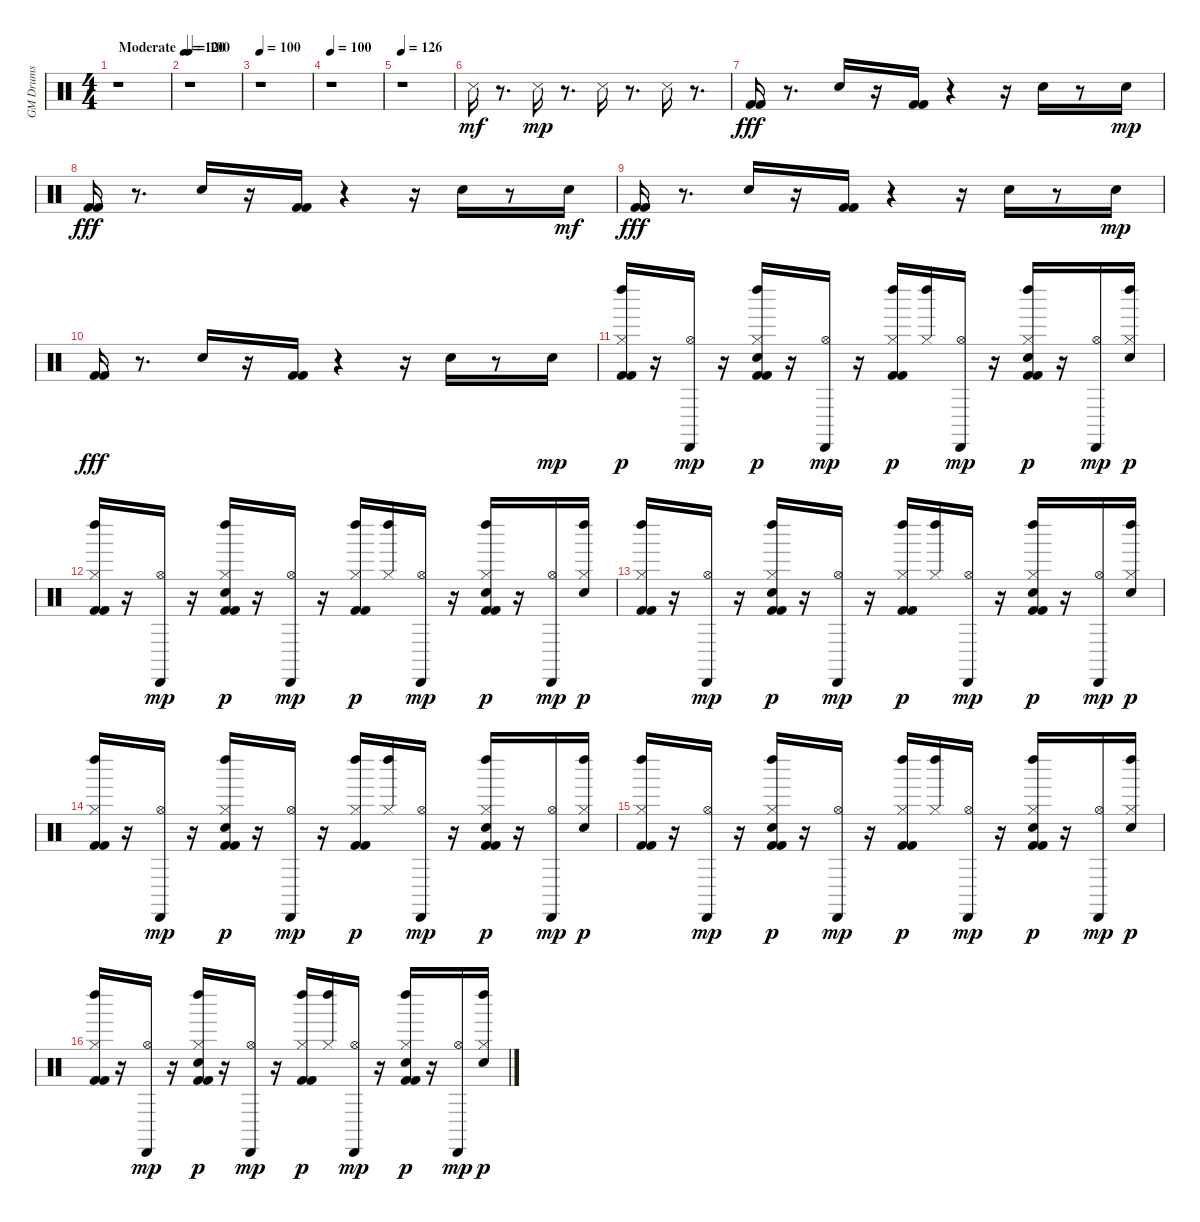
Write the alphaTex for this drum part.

\track ("GM Drums" "GM Drums") {instrument percussion}
\staff {score}
\articulation defaults
\ts (4 4)
\tempo (120 "Moderate")
\clef neutral
\ks c
r.1{dy mf} |
\tempo 100
r.1 |
\tempo 100
r.1 |
\tempo 100
r.1 |
\tempo 126
r.1 |
"Snare (side stick) 3".16 r.8{d} "Snare (side stick) 3".16{dy mp} r.8{d} "Snare (side stick) 3".16 r.8{d} "Snare (side stick) 3".16 r.8{d} |
("Kick (hit) 2" "Kick (hit) 2").16{dy fff} r.8{d} "Electric Snare (hit)".16 r.16 ("Kick (hit) 2" "Kick (hit) 2").16 r.4 r.16 "Electric Snare (hit)".16 r.8 "Electric Snare (hit)".16{dy mp} |
("Kick (hit) 2" "Kick (hit) 2").16{dy fff} r.8{d} "Electric Snare (hit)".16 r.16 ("Kick (hit) 2" "Kick (hit) 2").16 r.4 r.16 "Electric Snare (hit)".16 r.8 "Electric Snare (hit)".16{dy mf} |
("Kick (hit) 2" "Kick (hit) 2").16{dy fff} r.8{d} "Electric Snare (hit)".16 r.16 ("Kick (hit) 2" "Kick (hit) 2").16 r.4 r.16 "Electric Snare (hit)".16 r.8 "Electric Snare (hit)".16{dy mp} |
("Kick (hit) 2" "Kick (hit) 2").16{dy fff} r.8{d} "Electric Snare (hit)".16 r.16 ("Kick (hit) 2" "Kick (hit) 2").16 r.4 r.16 "Electric Snare (hit)".16 r.8 "Electric Snare (hit)".16{dy mp} |
("Kick (hit) 2" "Kick (hit) 2" "Hi-Hat (closed)" "Left Maraca (hit)").16{dy p} r.16 ("Hi-Hat (open)" "Cabasa (hit)").16{dy mp} r.16 ("Kick (hit) 2" "Kick (hit) 2" "Electric Snare (hit)" "Hi-Hat (closed)" "Left Maraca (hit)").16{dy p} r.16 ("Hi-Hat (open)" "Cabasa (hit)").16{dy mp} r.16 ("Kick (hit) 2" "Kick (hit) 2" "Hi-Hat (closed)" "Left Maraca (hit)").16{dy p} ("Hi-Hat (closed)" "Left Maraca (hit)").16 ("Hi-Hat (open)" "Cabasa (hit)").16{dy mp} r.16 ("Kick (hit) 2" "Kick (hit) 2" "Electric Snare (hit)" "Hi-Hat (closed)" "Left Maraca (hit)").16{dy p} r.16 ("Hi-Hat (open)" "Cabasa (hit)").16{dy mp} ("Electric Snare (hit)" "Hi-Hat (closed)" "Left Maraca (hit)").16{dy p} |
("Kick (hit) 2" "Kick (hit) 2" "Hi-Hat (closed)" "Left Maraca (hit)").16 r.16 ("Hi-Hat (open)" "Cabasa (hit)").16{dy mp} r.16 ("Kick (hit) 2" "Kick (hit) 2" "Electric Snare (hit)" "Hi-Hat (closed)" "Left Maraca (hit)").16{dy p} r.16 ("Hi-Hat (open)" "Cabasa (hit)").16{dy mp} r.16 ("Kick (hit) 2" "Kick (hit) 2" "Hi-Hat (closed)" "Left Maraca (hit)").16{dy p} ("Hi-Hat (closed)" "Left Maraca (hit)").16 ("Hi-Hat (open)" "Cabasa (hit)").16{dy mp} r.16 ("Kick (hit) 2" "Kick (hit) 2" "Electric Snare (hit)" "Hi-Hat (closed)" "Left Maraca (hit)").16{dy p} r.16 ("Hi-Hat (open)" "Cabasa (hit)").16{dy mp} ("Electric Snare (hit)" "Hi-Hat (closed)" "Left Maraca (hit)").16{dy p} |
("Kick (hit) 2" "Kick (hit) 2" "Hi-Hat (closed)" "Left Maraca (hit)").16 r.16 ("Hi-Hat (open)" "Cabasa (hit)").16{dy mp} r.16 ("Kick (hit) 2" "Kick (hit) 2" "Electric Snare (hit)" "Hi-Hat (closed)" "Left Maraca (hit)").16{dy p} r.16 ("Hi-Hat (open)" "Cabasa (hit)").16{dy mp} r.16 ("Kick (hit) 2" "Kick (hit) 2" "Hi-Hat (closed)" "Left Maraca (hit)").16{dy p} ("Hi-Hat (closed)" "Left Maraca (hit)").16 ("Hi-Hat (open)" "Cabasa (hit)").16{dy mp} r.16 ("Kick (hit) 2" "Kick (hit) 2" "Electric Snare (hit)" "Hi-Hat (closed)" "Left Maraca (hit)").16{dy p} r.16 ("Hi-Hat (open)" "Cabasa (hit)").16{dy mp} ("Electric Snare (hit)" "Hi-Hat (closed)" "Left Maraca (hit)").16{dy p} |
("Kick (hit) 2" "Kick (hit) 2" "Hi-Hat (closed)" "Left Maraca (hit)").16 r.16 ("Hi-Hat (open)" "Cabasa (hit)").16{dy mp} r.16 ("Kick (hit) 2" "Kick (hit) 2" "Electric Snare (hit)" "Hi-Hat (closed)" "Left Maraca (hit)").16{dy p} r.16 ("Hi-Hat (open)" "Cabasa (hit)").16{dy mp} r.16 ("Kick (hit) 2" "Kick (hit) 2" "Hi-Hat (closed)" "Left Maraca (hit)").16{dy p} ("Hi-Hat (closed)" "Left Maraca (hit)").16 ("Hi-Hat (open)" "Cabasa (hit)").16{dy mp} r.16 ("Kick (hit) 2" "Kick (hit) 2" "Electric Snare (hit)" "Hi-Hat (closed)" "Left Maraca (hit)").16{dy p} r.16 ("Hi-Hat (open)" "Cabasa (hit)").16{dy mp} ("Electric Snare (hit)" "Hi-Hat (closed)" "Left Maraca (hit)").16{dy p} |
("Kick (hit) 2" "Kick (hit) 2" "Hi-Hat (closed)" "Left Maraca (hit)").16 r.16 ("Hi-Hat (open)" "Cabasa (hit)").16{dy mp} r.16 ("Kick (hit) 2" "Kick (hit) 2" "Electric Snare (hit)" "Hi-Hat (closed)" "Left Maraca (hit)").16{dy p} r.16 ("Hi-Hat (open)" "Cabasa (hit)").16{dy mp} r.16 ("Kick (hit) 2" "Kick (hit) 2" "Hi-Hat (closed)" "Left Maraca (hit)").16{dy p} ("Hi-Hat (closed)" "Left Maraca (hit)").16 ("Hi-Hat (open)" "Cabasa (hit)").16{dy mp} r.16 ("Kick (hit) 2" "Kick (hit) 2" "Electric Snare (hit)" "Hi-Hat (closed)" "Left Maraca (hit)").16{dy p} r.16 ("Hi-Hat (open)" "Cabasa (hit)").16{dy mp} ("Electric Snare (hit)" "Hi-Hat (closed)" "Left Maraca (hit)").16{dy p} |
("Kick (hit) 2" "Kick (hit) 2" "Hi-Hat (closed)" "Left Maraca (hit)").16 r.16 ("Hi-Hat (open)" "Cabasa (hit)").16{dy mp} r.16 ("Kick (hit) 2" "Kick (hit) 2" "Electric Snare (hit)" "Hi-Hat (closed)" "Left Maraca (hit)").16{dy p} r.16 ("Hi-Hat (open)" "Cabasa (hit)").16{dy mp} r.16 ("Kick (hit) 2" "Kick (hit) 2" "Hi-Hat (closed)" "Left Maraca (hit)").16{dy p} ("Hi-Hat (closed)" "Left Maraca (hit)").16 ("Hi-Hat (open)" "Cabasa (hit)").16{dy mp} r.16 ("Kick (hit) 2" "Kick (hit) 2" "Electric Snare (hit)" "Hi-Hat (closed)" "Left Maraca (hit)").16{dy p} r.16 ("Hi-Hat (open)" "Cabasa (hit)").16{dy mp} ("Electric Snare (hit)" "Hi-Hat (closed)" "Left Maraca (hit)").16{dy p}
